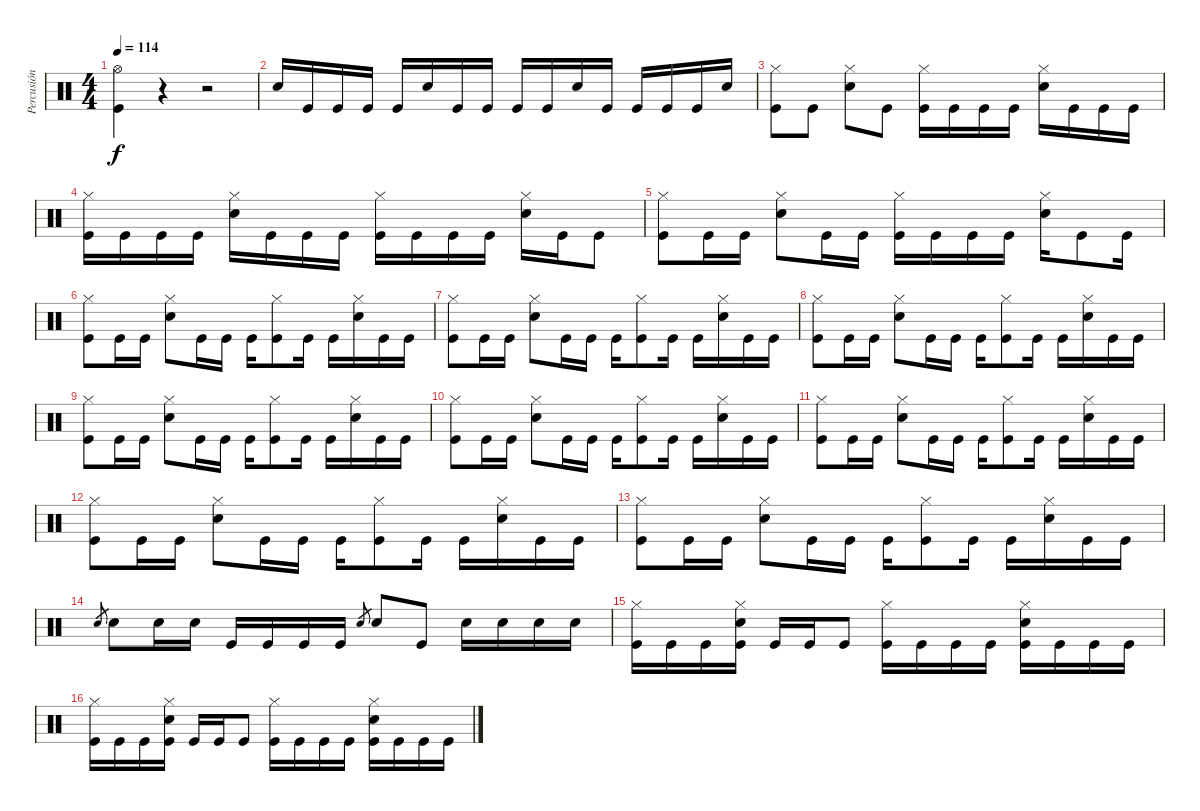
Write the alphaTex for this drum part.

\track ("Percusión" "Percusión") {instrument percussion}
\staff {score}
\articulation defaults
\ts (4 4)
\tempo 114
\clef neutral
\ks c
("Hi-Hat (open)" "Kick (hit)").4{dy f} r.4 r.2 |
"Snare (hit) 2".16 "Kick (hit)".16 "Kick (hit)".16 "Kick (hit)".16 "Kick (hit)".16 "Snare (hit) 2".16 "Kick (hit)".16 "Kick (hit)".16 "Kick (hit)".16 "Kick (hit)".16 "Snare (hit) 2".16 "Kick (hit)".16 "Kick (hit)".16 "Kick (hit)".16 "Kick (hit)".16 "Snare (hit) 2".16 |
("Hi-Hat (closed)" "Kick (hit)").8 "Kick (hit)".8 ("Hi-Hat (closed)" "Snare (hit) 2").8 "Kick (hit)".8 ("Hi-Hat (closed)" "Kick (hit)").16 "Kick (hit)".16 "Kick (hit)".16 "Kick (hit)".16 ("Hi-Hat (closed)" "Snare (hit) 2").16 "Kick (hit)".16 "Kick (hit)".16 "Kick (hit)".16 |
("Hi-Hat (closed)" "Kick (hit)").16 "Kick (hit)".16 "Kick (hit)".16 "Kick (hit)".16 ("Hi-Hat (closed)" "Snare (hit) 2").16 "Kick (hit)".16 "Kick (hit)".16 "Kick (hit)".16 ("Hi-Hat (closed)" "Kick (hit)").16 "Kick (hit)".16 "Kick (hit)".16 "Kick (hit)".16 ("Hi-Hat (closed)" "Snare (hit) 2").16 "Kick (hit)".16 "Kick (hit)".8 |
("Hi-Hat (closed)" "Kick (hit)").8 "Kick (hit)".16 "Kick (hit)".16 ("Hi-Hat (closed)" "Snare (hit) 2").8 "Kick (hit)".16 "Kick (hit)".16 ("Hi-Hat (closed)" "Kick (hit)").16 "Kick (hit)".16 "Kick (hit)".16 "Kick (hit)".16 ("Hi-Hat (closed)" "Snare (hit) 2").16 "Kick (hit)".8 "Kick (hit)".16 |
("Hi-Hat (closed)" "Kick (hit)").8 "Kick (hit)".16 "Kick (hit)".16 ("Hi-Hat (closed)" "Snare (hit) 2").8 "Kick (hit)".16 "Kick (hit)".16 "Kick (hit)".16 ("Hi-Hat (closed)" "Kick (hit)").8 "Kick (hit)".16 "Kick (hit)".16 ("Hi-Hat (closed)" "Snare (hit) 2").16 "Kick (hit)".16 "Kick (hit)".16 |
("Hi-Hat (closed)" "Kick (hit)").8 "Kick (hit)".16 "Kick (hit)".16 ("Hi-Hat (closed)" "Snare (hit) 2").8 "Kick (hit)".16 "Kick (hit)".16 "Kick (hit)".16 ("Hi-Hat (closed)" "Kick (hit)").8 "Kick (hit)".16 "Kick (hit)".16 ("Hi-Hat (closed)" "Snare (hit) 2").16 "Kick (hit)".16 "Kick (hit)".16 |
("Hi-Hat (closed)" "Kick (hit)").8 "Kick (hit)".16 "Kick (hit)".16 ("Hi-Hat (closed)" "Snare (hit) 2").8 "Kick (hit)".16 "Kick (hit)".16 "Kick (hit)".16 ("Hi-Hat (closed)" "Kick (hit)").8 "Kick (hit)".16 "Kick (hit)".16 ("Hi-Hat (closed)" "Snare (hit) 2").16 "Kick (hit)".16 "Kick (hit)".16 |
("Hi-Hat (closed)" "Kick (hit)").8 "Kick (hit)".16 "Kick (hit)".16 ("Hi-Hat (closed)" "Snare (hit) 2").8 "Kick (hit)".16 "Kick (hit)".16 "Kick (hit)".16 ("Hi-Hat (closed)" "Kick (hit)").8 "Kick (hit)".16 "Kick (hit)".16 ("Hi-Hat (closed)" "Snare (hit) 2").16 "Kick (hit)".16 "Kick (hit)".16 |
("Hi-Hat (closed)" "Kick (hit)").8 "Kick (hit)".16 "Kick (hit)".16 ("Hi-Hat (closed)" "Snare (hit) 2").8 "Kick (hit)".16 "Kick (hit)".16 "Kick (hit)".16 ("Hi-Hat (closed)" "Kick (hit)").8 "Kick (hit)".16 "Kick (hit)".16 ("Hi-Hat (closed)" "Snare (hit) 2").16 "Kick (hit)".16 "Kick (hit)".16 |
("Hi-Hat (closed)" "Kick (hit)").8 "Kick (hit)".16 "Kick (hit)".16 ("Hi-Hat (closed)" "Snare (hit) 2").8 "Kick (hit)".16 "Kick (hit)".16 "Kick (hit)".16 ("Hi-Hat (closed)" "Kick (hit)").8 "Kick (hit)".16 "Kick (hit)".16 ("Hi-Hat (closed)" "Snare (hit) 2").16 "Kick (hit)".16 "Kick (hit)".16 |
("Hi-Hat (closed)" "Kick (hit)").8 "Kick (hit)".16 "Kick (hit)".16 ("Hi-Hat (closed)" "Snare (hit) 2").8 "Kick (hit)".16 "Kick (hit)".16 "Kick (hit)".16 ("Hi-Hat (closed)" "Kick (hit)").8 "Kick (hit)".16 "Kick (hit)".16 ("Hi-Hat (closed)" "Snare (hit) 2").16 "Kick (hit)".16 "Kick (hit)".16 |
("Hi-Hat (closed)" "Kick (hit)").8 "Kick (hit)".16 "Kick (hit)".16 ("Hi-Hat (closed)" "Snare (hit) 2").8 "Kick (hit)".16 "Kick (hit)".16 "Kick (hit)".16 ("Hi-Hat (closed)" "Kick (hit)").8 "Kick (hit)".16 "Kick (hit)".16 ("Hi-Hat (closed)" "Snare (hit) 2").16 "Kick (hit)".16 "Kick (hit)".16 |
"Snare (hit) 2".8{gr} "Snare (hit) 2".8 "Snare (hit) 2".16 "Snare (hit) 2".16 "Kick (hit)".16 "Kick (hit)".16 "Kick (hit)".16 "Kick (hit)".16 "Snare (hit) 2".8{gr} "Snare (hit) 2".8 "Kick (hit)".8 "Snare (hit) 2".16 "Snare (hit) 2".16 "Snare (hit) 2".16 "Snare (hit) 2".16 |
("Hi-Hat (closed)" "Kick (hit)").16 "Kick (hit)".16 "Kick (hit)".16 ("Hi-Hat (closed)" "Snare (hit) 2" "Kick (hit)").16 "Kick (hit)".16 "Kick (hit)".16 "Kick (hit)".8 ("Hi-Hat (closed)" "Kick (hit)").16 "Kick (hit)".16 "Kick (hit)".16 "Kick (hit)".16 ("Hi-Hat (closed)" "Snare (hit) 2" "Kick (hit)").16 "Kick (hit)".16 "Kick (hit)".16 "Kick (hit)".16 |
("Hi-Hat (closed)" "Kick (hit)").16 "Kick (hit)".16 "Kick (hit)".16 ("Hi-Hat (closed)" "Snare (hit) 2" "Kick (hit)").16 "Kick (hit)".16 "Kick (hit)".16 "Kick (hit)".8 ("Hi-Hat (closed)" "Kick (hit)").16 "Kick (hit)".16 "Kick (hit)".16 "Kick (hit)".16 ("Hi-Hat (closed)" "Snare (hit) 2" "Kick (hit)").16 "Kick (hit)".16 "Kick (hit)".16 "Kick (hit)".16
